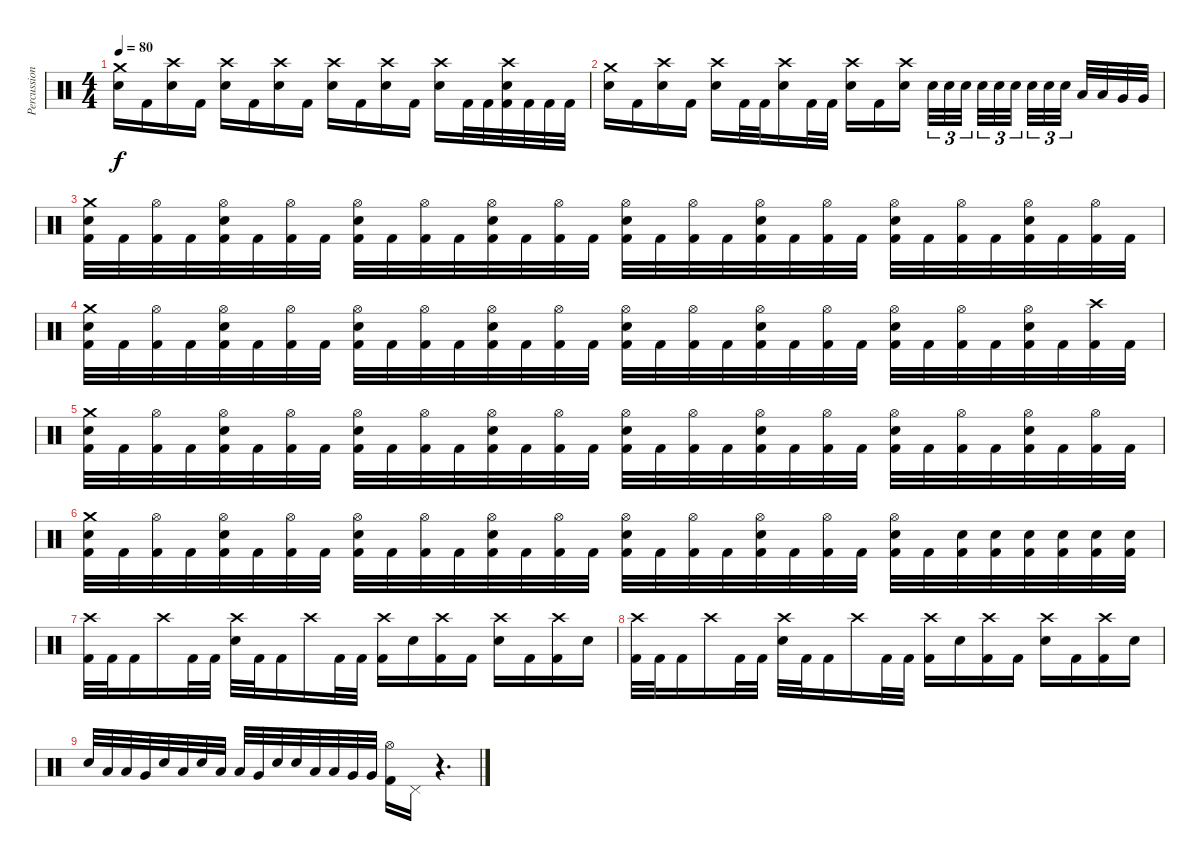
\track ("Percussions" "Percussion") {instrument percussion}
\staff {score}
\articulation defaults
\ts (4 4)
\tempo 80
\clef neutral
\ks c
("Crash medium (hit)" "Electric Snare (hit)").16{dy f} "Kick (hit) 2".16 ("Crash high (hit)" "Electric Snare (hit)").16 "Kick (hit) 2".16 ("Crash high (hit)" "Electric Snare (hit)").16 "Kick (hit) 2".16 ("Crash high (hit)" "Electric Snare (hit)").16 "Kick (hit) 2".16 ("Crash high (hit)" "Electric Snare (hit)").16 "Kick (hit) 2".16 ("Crash high (hit)" "Electric Snare (hit)").16 "Kick (hit) 2".16 ("Crash high (hit)" "Electric Snare (hit)").16 "Kick (hit) 2".32 "Kick (hit) 2".32 ("Crash high (hit)" "Electric Snare (hit)" "Kick (hit) 2").32 "Kick (hit) 2".32 "Kick (hit) 2".32 "Kick (hit) 2".32 |
("Crash medium (hit)" "Electric Snare (hit)").16 "Kick (hit) 2".16 ("Crash high (hit)" "Electric Snare (hit)").16 "Kick (hit) 2".16 ("Crash high (hit)" "Electric Snare (hit)").16 "Kick (hit) 2".32 "Kick (hit) 2".32 ("Crash high (hit)" "Electric Snare (hit)").16 "Kick (hit) 2".32 "Kick (hit) 2".32 ("Crash high (hit)" "Electric Snare (hit)").16 "Kick (hit) 2".16 ("Crash high (hit)" "Electric Snare (hit)").16{beam splitsecondary} "Electric Snare (hit)".32{tu (3 2)} "Electric Snare (hit)".32{tu (3 2)} "Electric Snare (hit)".32{tu (3 2)} "Electric Snare (hit)".32{tu (3 2)} "Electric Snare (hit)".32{tu (3 2)} "Electric Snare (hit)".32{tu (3 2) beam splitsecondary} "Electric Snare (hit)".32{tu (3 2)} "Electric Snare (hit)".32{tu (3 2)} "Electric Snare (hit)".32{tu (3 2) beam splitsecondary} "Low Tom (hit)".32 "Low Tom (hit)".32 "Very Low Tom (hit)".32 "Very Low Tom (hit)".32 |
("Crash medium (hit)" "Electric Snare (hit)" "Kick (hit) 2").32 "Kick (hit) 2".32 ("Hi-Hat (open)" "Kick (hit) 2").32 "Kick (hit) 2".32 ("Hi-Hat (open)" "Electric Snare (hit)" "Kick (hit) 2").32 "Kick (hit) 2".32 ("Hi-Hat (open)" "Kick (hit) 2").32 "Kick (hit) 2".32 ("Hi-Hat (open)" "Electric Snare (hit)" "Kick (hit) 2").32 "Kick (hit) 2".32 ("Hi-Hat (open)" "Kick (hit) 2").32 "Kick (hit) 2".32 ("Hi-Hat (open)" "Electric Snare (hit)" "Kick (hit) 2").32 "Kick (hit) 2".32 ("Hi-Hat (open)" "Kick (hit) 2").32 "Kick (hit) 2".32 ("Hi-Hat (open)" "Electric Snare (hit)" "Kick (hit) 2").32 "Kick (hit) 2".32 ("Hi-Hat (open)" "Kick (hit) 2").32 "Kick (hit) 2".32 ("Hi-Hat (open)" "Electric Snare (hit)" "Kick (hit) 2").32 "Kick (hit) 2".32 ("Hi-Hat (open)" "Kick (hit) 2").32 "Kick (hit) 2".32 ("Hi-Hat (open)" "Electric Snare (hit)" "Kick (hit) 2").32 "Kick (hit) 2".32 ("Hi-Hat (open)" "Kick (hit) 2").32 "Kick (hit) 2".32 ("Hi-Hat (open)" "Electric Snare (hit)" "Kick (hit) 2").32 "Kick (hit) 2".32 ("Hi-Hat (open)" "Kick (hit) 2").32 "Kick (hit) 2".32 |
("Crash medium (hit)" "Electric Snare (hit)" "Kick (hit) 2").32 "Kick (hit) 2".32 ("Hi-Hat (open)" "Kick (hit) 2").32 "Kick (hit) 2".32 ("Hi-Hat (open)" "Electric Snare (hit)" "Kick (hit) 2").32 "Kick (hit) 2".32 ("Hi-Hat (open)" "Kick (hit) 2").32 "Kick (hit) 2".32 ("Hi-Hat (open)" "Electric Snare (hit)" "Kick (hit) 2").32 "Kick (hit) 2".32 ("Hi-Hat (open)" "Kick (hit) 2").32 "Kick (hit) 2".32 ("Hi-Hat (open)" "Electric Snare (hit)" "Kick (hit) 2").32 "Kick (hit) 2".32 ("Hi-Hat (open)" "Kick (hit) 2").32 "Kick (hit) 2".32 ("Hi-Hat (open)" "Electric Snare (hit)" "Kick (hit) 2").32 "Kick (hit) 2".32 ("Hi-Hat (open)" "Kick (hit) 2").32 "Kick (hit) 2".32 ("Hi-Hat (open)" "Electric Snare (hit)" "Kick (hit) 2").32 "Kick (hit) 2".32 ("Hi-Hat (open)" "Kick (hit) 2").32 "Kick (hit) 2".32 ("Hi-Hat (open)" "Electric Snare (hit)" "Kick (hit) 2").32 "Kick (hit) 2".32 ("Hi-Hat (open)" "Kick (hit) 2").32 "Kick (hit) 2".32 ("Hi-Hat (open)" "Electric Snare (hit)" "Kick (hit) 2").32 "Kick (hit) 2".32 ("Crash high (hit)" "Kick (hit) 2").32 "Kick (hit) 2".32 |
("Crash medium (hit)" "Electric Snare (hit)" "Kick (hit) 2").32 "Kick (hit) 2".32 ("Hi-Hat (open)" "Kick (hit) 2").32 "Kick (hit) 2".32 ("Hi-Hat (open)" "Electric Snare (hit)" "Kick (hit) 2").32 "Kick (hit) 2".32 ("Hi-Hat (open)" "Kick (hit) 2").32 "Kick (hit) 2".32 ("Hi-Hat (open)" "Electric Snare (hit)" "Kick (hit) 2").32 "Kick (hit) 2".32 ("Hi-Hat (open)" "Kick (hit) 2").32 "Kick (hit) 2".32 ("Hi-Hat (open)" "Electric Snare (hit)" "Kick (hit) 2").32 "Kick (hit) 2".32 ("Hi-Hat (open)" "Kick (hit) 2").32 "Kick (hit) 2".32 ("Hi-Hat (open)" "Electric Snare (hit)" "Kick (hit) 2").32 "Kick (hit) 2".32 ("Hi-Hat (open)" "Kick (hit) 2").32 "Kick (hit) 2".32 ("Hi-Hat (open)" "Electric Snare (hit)" "Kick (hit) 2").32 "Kick (hit) 2".32 ("Hi-Hat (open)" "Kick (hit) 2").32 "Kick (hit) 2".32 ("Hi-Hat (open)" "Electric Snare (hit)" "Kick (hit) 2").32 "Kick (hit) 2".32 ("Hi-Hat (open)" "Kick (hit) 2").32 "Kick (hit) 2".32 ("Hi-Hat (open)" "Electric Snare (hit)" "Kick (hit) 2").32 "Kick (hit) 2".32 ("Hi-Hat (open)" "Kick (hit) 2").32 "Kick (hit) 2".32 |
("Crash medium (hit)" "Electric Snare (hit)" "Kick (hit) 2").32 "Kick (hit) 2".32 ("Hi-Hat (open)" "Kick (hit) 2").32 "Kick (hit) 2".32 ("Hi-Hat (open)" "Electric Snare (hit)" "Kick (hit) 2").32 "Kick (hit) 2".32 ("Hi-Hat (open)" "Kick (hit) 2").32 "Kick (hit) 2".32 ("Hi-Hat (open)" "Electric Snare (hit)" "Kick (hit) 2").32 "Kick (hit) 2".32 ("Hi-Hat (open)" "Kick (hit) 2").32 "Kick (hit) 2".32 ("Hi-Hat (open)" "Electric Snare (hit)" "Kick (hit) 2").32 "Kick (hit) 2".32 ("Hi-Hat (open)" "Kick (hit) 2").32 "Kick (hit) 2".32 ("Hi-Hat (open)" "Electric Snare (hit)" "Kick (hit) 2").32 "Kick (hit) 2".32 ("Hi-Hat (open)" "Kick (hit) 2").32 "Kick (hit) 2".32 ("Hi-Hat (open)" "Electric Snare (hit)" "Kick (hit) 2").32 "Kick (hit) 2".32 ("Hi-Hat (open)" "Kick (hit) 2").32 "Kick (hit) 2".32 ("Hi-Hat (open)" "Electric Snare (hit)" "Kick (hit) 2").32 "Kick (hit) 2".32 ("Electric Snare (hit)" "Kick (hit) 2").32 ("Electric Snare (hit)" "Kick (hit) 2").32 ("Electric Snare (hit)" "Kick (hit) 2").32 ("Electric Snare (hit)" "Kick (hit) 2").32 ("Electric Snare (hit)" "Kick (hit) 2").32 ("Electric Snare (hit)" "Kick (hit) 2").32 |
("Crash high (hit)" "Kick (hit) 2").32 "Kick (hit) 2".32 "Kick (hit) 2".16 "Crash high (hit)".16 "Kick (hit) 2".32 "Kick (hit) 2".32 ("Crash high (hit)" "Electric Snare (hit)").32 "Kick (hit) 2".32 "Kick (hit) 2".16 "Crash high (hit)".16 "Kick (hit) 2".32 "Kick (hit) 2".32 ("Crash high (hit)" "Kick (hit) 2").16 "Electric Snare (hit)".16 ("Crash high (hit)" "Kick (hit) 2").16 "Kick (hit) 2".16 ("Crash high (hit)" "Electric Snare (hit)").16 "Kick (hit) 2".16 ("Crash high (hit)" "Kick (hit) 2").16 "Electric Snare (hit)".16 |
("Crash high (hit)" "Kick (hit) 2").32 "Kick (hit) 2".32 "Kick (hit) 2".16 "Crash high (hit)".16 "Kick (hit) 2".32 "Kick (hit) 2".32 ("Crash high (hit)" "Electric Snare (hit)").32 "Kick (hit) 2".32 "Kick (hit) 2".16 "Crash high (hit)".16 "Kick (hit) 2".32 "Kick (hit) 2".32 ("Crash high (hit)" "Kick (hit) 2").16 "Electric Snare (hit)".16 ("Crash high (hit)" "Kick (hit) 2").16 "Kick (hit) 2".16 ("Crash high (hit)" "Electric Snare (hit)").16 "Kick (hit) 2".16 ("Crash high (hit)" "Kick (hit) 2").16 "Electric Snare (hit)".16 |
"Electric Snare (hit)".32 "Low Tom (hit)".32 "Low Tom (hit)".32 "Very Low Tom (hit)".32 "Electric Snare (hit)".32 "Low Tom (hit)".32 "Electric Snare (hit)".32 "Low Tom (hit)".32 "Low Tom (hit)".32 "Very Low Tom (hit)".32 "Electric Snare (hit)".32 "Electric Snare (hit)".32 "Low Tom (hit)".32 "Low Tom (hit)".32 "Very Low Tom (hit)".32 "Very Low Tom (hit)".32 ("Hi-Hat (open)" "Kick (hit) 2").16 "Pedal Hi-Hat (hit)".16 r.4{d}
